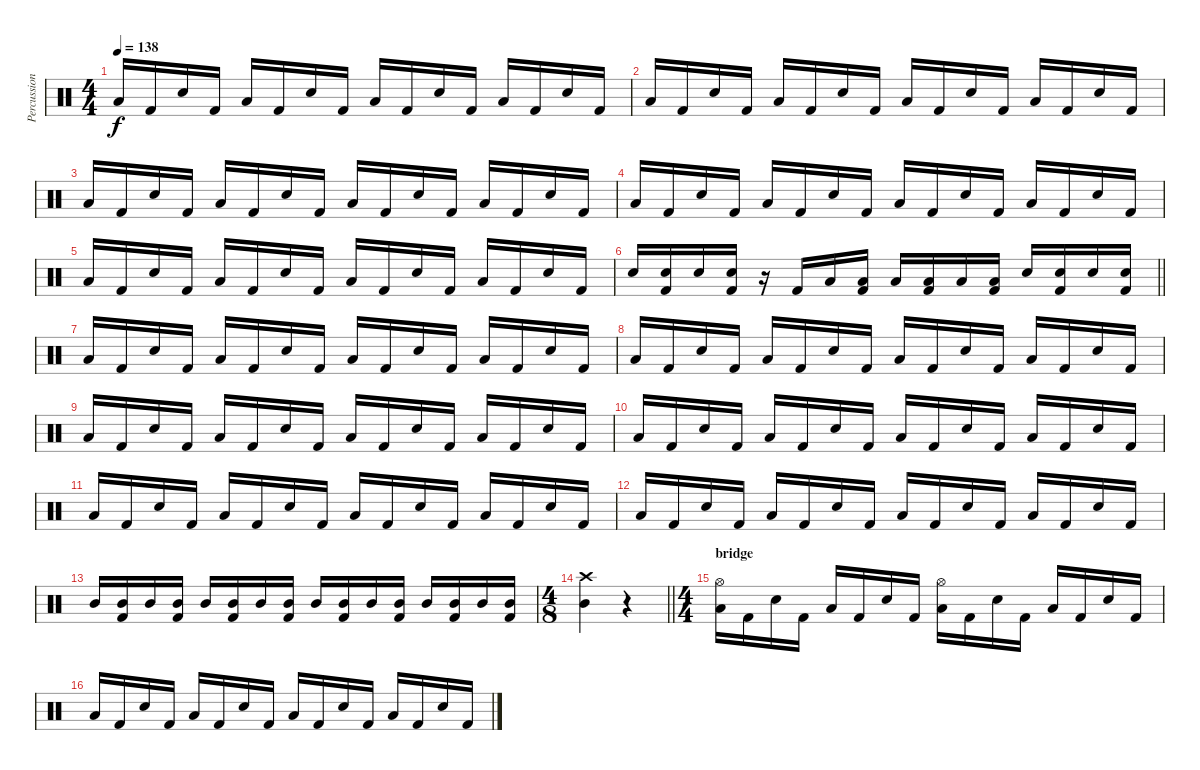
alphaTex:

\track ("Percussion" "Percussion") {instrument percussion}
\staff {score}
\articulation defaults
\ts (4 4)
\tempo 138
\clef neutral
\ks c "Low Tom (hit)".16{dy f} "Kick (hit) 2".16 "Snare (hit) 2".16 "Kick (hit) 2".16 "Low Tom (hit)".16 "Kick (hit) 2".16 "Snare (hit) 2".16 "Kick (hit) 2".16 "Low Tom (hit)".16 "Kick (hit) 2".16 "Snare (hit) 2".16 "Kick (hit) 2".16 "Low Tom (hit)".16 "Kick (hit) 2".16 "Snare (hit) 2".16 "Kick (hit) 2".16
|
"Low Tom (hit)".16 "Kick (hit) 2".16 "Snare (hit) 2".16 "Kick (hit) 2".16 "Low Tom (hit)".16 "Kick (hit) 2".16 "Snare (hit) 2".16 "Kick (hit) 2".16 "Low Tom (hit)".16 "Kick (hit) 2".16 "Snare (hit) 2".16 "Kick (hit) 2".16 "Low Tom (hit)".16 "Kick (hit) 2".16 "Snare (hit) 2".16 "Kick (hit) 2".16 |
"Low Tom (hit)".16 "Kick (hit) 2".16 "Snare (hit) 2".16 "Kick (hit) 2".16 "Low Tom (hit)".16 "Kick (hit) 2".16 "Snare (hit) 2".16 "Kick (hit) 2".16 "Low Tom (hit)".16 "Kick (hit) 2".16 "Snare (hit) 2".16 "Kick (hit) 2".16 "Low Tom (hit)".16 "Kick (hit) 2".16 "Snare (hit) 2".16 "Kick (hit) 2".16 |
"Low Tom (hit)".16 "Kick (hit) 2".16 "Snare (hit) 2".16 "Kick (hit) 2".16 "Low Tom (hit)".16 "Kick (hit) 2".16 "Snare (hit) 2".16 "Kick (hit) 2".16 "Low Tom (hit)".16 "Kick (hit) 2".16 "Snare (hit) 2".16 "Kick (hit) 2".16 "Low Tom (hit)".16 "Kick (hit) 2".16 "Snare (hit) 2".16 "Kick (hit) 2".16 |
"Low Tom (hit)".16 "Kick (hit) 2".16 "Snare (hit) 2".16 "Kick (hit) 2".16 "Low Tom (hit)".16 "Kick (hit) 2".16 "Snare (hit) 2".16 "Kick (hit) 2".16 "Low Tom (hit)".16 "Kick (hit) 2".16 "Snare (hit) 2".16 "Kick (hit) 2".16 "Low Tom (hit)".16 "Kick (hit) 2".16 "Snare (hit) 2".16 "Kick (hit) 2".16 |
\barLineRight lightlight "Snare (hit) 2".16
("Snare (hit) 2" "Kick (hit) 2").16 "Snare (hit) 2".16 ("Snare (hit) 2" "Kick (hit) 2").16 r.16 "Kick (hit) 2".16 "Low Tom (hit)".16 ("Low Tom (hit)" "Kick (hit) 2").16 "Low Tom (hit)".16 ("Low Tom (hit)" "Kick (hit) 2").16 "Low Tom (hit)".16 ("Low Tom (hit)" "Kick (hit) 2").16 "Snare (hit) 2".16 ("Snare (hit) 2" "Kick (hit) 2").16 "Snare (hit) 2".16 ("Snare (hit) 2" "Kick (hit) 2").16 |
"Low Tom (hit)".16 "Kick (hit) 2".16 "Snare (hit) 2".16 "Kick (hit) 2".16 "Low Tom (hit)".16 "Kick (hit) 2".16 "Snare (hit) 2".16 "Kick (hit) 2".16 "Low Tom (hit)".16 "Kick (hit) 2".16 "Snare (hit) 2".16 "Kick (hit) 2".16 "Low Tom (hit)".16 "Kick (hit) 2".16 "Snare (hit) 2".16 "Kick (hit) 2".16 |
"Low Tom (hit)".16 "Kick (hit) 2".16 "Snare (hit) 2".16 "Kick (hit) 2".16 "Low Tom (hit)".16 "Kick (hit) 2".16 "Snare (hit) 2".16 "Kick (hit) 2".16 "Low Tom (hit)".16 "Kick (hit) 2".16 "Snare (hit) 2".16 "Kick (hit) 2".16 "Low Tom (hit)".16 "Kick (hit) 2".16 "Snare (hit) 2".16 "Kick (hit) 2".16 |
"Low Tom (hit)".16 "Kick (hit) 2".16 "Snare (hit) 2".16 "Kick (hit) 2".16 "Low Tom (hit)".16 "Kick (hit) 2".16 "Snare (hit) 2".16 "Kick (hit) 2".16 "Low Tom (hit)".16 "Kick (hit) 2".16 "Snare (hit) 2".16 "Kick (hit) 2".16 "Low Tom (hit)".16 "Kick (hit) 2".16 "Snare (hit) 2".16 "Kick (hit) 2".16 |
"Low Tom (hit)".16 "Kick (hit) 2".16 "Snare (hit) 2".16 "Kick (hit) 2".16 "Low Tom (hit)".16 "Kick (hit) 2".16 "Snare (hit) 2".16 "Kick (hit) 2".16 "Low Tom (hit)".16 "Kick (hit) 2".16 "Snare (hit) 2".16 "Kick (hit) 2".16 "Low Tom (hit)".16 "Kick (hit) 2".16 "Snare (hit) 2".16 "Kick (hit) 2".16 |
"Low Tom (hit)".16 "Kick (hit) 2".16 "Snare (hit) 2".16 "Kick (hit) 2".16 "Low Tom (hit)".16 "Kick (hit) 2".16 "Snare (hit) 2".16 "Kick (hit) 2".16 "Low Tom (hit)".16 "Kick (hit) 2".16 "Snare (hit) 2".16 "Kick (hit) 2".16 "Low Tom (hit)".16 "Kick (hit) 2".16 "Snare (hit) 2".16 "Kick (hit) 2".16 |
"Low Tom (hit)".16 "Kick (hit) 2".16 "Snare (hit) 2".16 "Kick (hit) 2".16 "Low Tom (hit)".16 "Kick (hit) 2".16 "Snare (hit) 2".16 "Kick (hit) 2".16 "Low Tom (hit)".16 "Kick (hit) 2".16 "Snare (hit) 2".16 "Kick (hit) 2".16 "Low Tom (hit)".16 "Kick (hit) 2".16 "Snare (hit) 2".16 "Kick (hit) 2".16 |
"Mid Tom (hit)".16 ("Mid Tom (hit)" "Kick (hit) 2").16 "Mid Tom (hit)".16 ("Mid Tom (hit)" "Kick (hit) 2").16 "Mid Tom (hit)".16 ("Mid Tom (hit)" "Kick (hit) 2").16 "Mid Tom (hit)".16 ("Mid Tom (hit)" "Kick (hit) 2").16 "Mid Tom (hit)".16 ("Mid Tom (hit)" "Kick (hit) 2").16 "Mid Tom (hit)".16 ("Mid Tom (hit)" "Kick (hit) 2").16 "Mid Tom (hit)".16 ("Mid Tom (hit)" "Kick (hit) 2").16 "Mid Tom (hit)".16 ("Mid Tom (hit)" "Kick (hit) 2").16 |
\ts (4 8)
\barLineRight lightlight
("Crash high (hit)" "Mid Tom (hit)").4 r.4 |
\ts (4 4)
\section ("" "bridge")
("Hi-Hat (open)" "Low Tom (hit)").16 "Kick (hit) 2".16 "Snare (hit) 2".16 "Kick (hit) 2".16 "Low Tom (hit)".16 "Kick (hit) 2".16 "Snare (hit) 2".16 "Kick (hit) 2".16 ("Hi-Hat (open)" "Low Tom (hit)").16 "Kick (hit) 2".16 "Snare (hit) 2".16 "Kick (hit) 2".16 "Low Tom (hit)".16 "Kick (hit) 2".16 "Snare (hit) 2".16 "Kick (hit) 2".16 |
"Low Tom (hit)".16 "Kick (hit) 2".16 "Snare (hit) 2".16 "Kick (hit) 2".16 "Low Tom (hit)".16 "Kick (hit) 2".16 "Snare (hit) 2".16 "Kick (hit) 2".16 "Low Tom (hit)".16 "Kick (hit) 2".16 "Snare (hit) 2".16 "Kick (hit) 2".16 "Low Tom (hit)".16 "Kick (hit) 2".16 "Snare (hit) 2".16 "Kick (hit) 2".16
